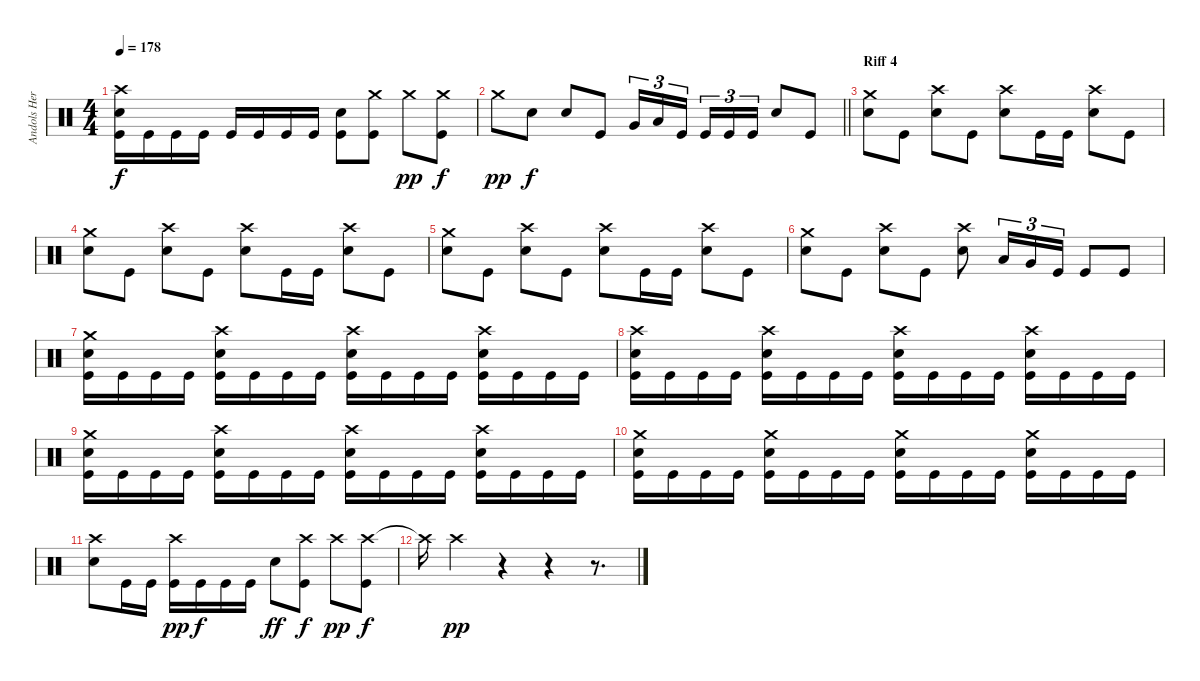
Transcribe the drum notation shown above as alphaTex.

\track ("Andols Herrick" "Andols Her") {instrument percussion}
\staff {score}
\articulation defaults
\ts (4 4)
\tempo 178
\clef neutral
\ks c
("Crash high (hit)" "Electric Snare (hit)" "Kick (hit)").16{dy f} "Kick (hit)".16 "Kick (hit)".16 "Kick (hit)".16 "Kick (hit)".16 "Kick (hit)".16 "Kick (hit)".16 "Kick (hit)".16 ("Electric Snare (hit)" "Kick (hit)").8 ("Crash medium (hit)" "Kick (hit)").8 "Crash medium (hit)".8{dy pp} ("Crash medium (hit)" "Kick (hit)").8{dy f} |
\barLineRight lightlight "Crash medium (hit)".8{dy pp} "Electric Snare (hit)".8{dy f} "Electric Snare (hit)".8 "Kick (hit)".8 "Very Low Tom (hit)".16{tu (3 2)} "Low Floor Tom (hit)".16{tu (3 2)} "Kick (hit)".16{tu (3 2) beam splitsecondary} "Kick (hit)".16{tu (3 2)} "Kick (hit)".16{tu (3 2)} "Kick (hit)".16{tu (3 2)} "Electric Snare (hit)".8 "Kick (hit)".8
|
\section ("" "Riff 4")
("Crash medium (hit)" "Electric Snare (hit)").8 "Kick (hit)".8 ("Crash high (hit)" "Electric Snare (hit)").8 "Kick (hit)".8 ("Crash high (hit)" "Electric Snare (hit)").8 "Kick (hit)".16 "Kick (hit)".16 ("Crash high (hit)" "Electric Snare (hit)").8 "Kick (hit)".8 |
("Crash medium (hit)" "Electric Snare (hit)").8 "Kick (hit)".8 ("Crash high (hit)" "Electric Snare (hit)").8 "Kick (hit)".8 ("Crash high (hit)" "Electric Snare (hit)").8 "Kick (hit)".16 "Kick (hit)".16 ("Crash high (hit)" "Electric Snare (hit)").8 "Kick (hit)".8 |
("Crash medium (hit)" "Electric Snare (hit)").8 "Kick (hit)".8 ("Crash high (hit)" "Electric Snare (hit)").8 "Kick (hit)".8 ("Crash high (hit)" "Electric Snare (hit)").8 "Kick (hit)".16 "Kick (hit)".16 ("Crash high (hit)" "Electric Snare (hit)").8 "Kick (hit)".8 |
("Crash medium (hit)" "Electric Snare (hit)").8 "Kick (hit)".8 ("Crash high (hit)" "Electric Snare (hit)").8 "Kick (hit)".8 ("Crash high (hit)" "Electric Snare (hit)").8 "Low Tom (hit)".16{tu (3 2)} "Very Low Tom (hit)".16{tu (3 2)} "Kick (hit)".16{tu (3 2)} "Kick (hit)".8 "Kick (hit)".8 |
("Crash medium (hit)" "Electric Snare (hit)" "Kick (hit)").16 "Kick (hit)".16 "Kick (hit)".16 "Kick (hit)".16 ("Crash high (hit)" "Electric Snare (hit)" "Kick (hit)").16 "Kick (hit)".16 "Kick (hit)".16 "Kick (hit)".16 ("Crash high (hit)" "Electric Snare (hit)" "Kick (hit)").16 "Kick (hit)".16 "Kick (hit)".16 "Kick (hit)".16 ("Crash high (hit)" "Electric Snare (hit)" "Kick (hit)").16 "Kick (hit)".16 "Kick (hit)".16 "Kick (hit)".16 |
("Crash high (hit)" "Electric Snare (hit)" "Kick (hit)").16 "Kick (hit)".16 "Kick (hit)".16 "Kick (hit)".16 ("Crash high (hit)" "Electric Snare (hit)" "Kick (hit)").16 "Kick (hit)".16 "Kick (hit)".16 "Kick (hit)".16 ("Crash high (hit)" "Electric Snare (hit)" "Kick (hit)").16 "Kick (hit)".16 "Kick (hit)".16 "Kick (hit)".16 ("Crash high (hit)" "Electric Snare (hit)" "Kick (hit)").16 "Kick (hit)".16 "Kick (hit)".16 "Kick (hit)".16 |
("Crash medium (hit)" "Electric Snare (hit)" "Kick (hit)").16 "Kick (hit)".16 "Kick (hit)".16 "Kick (hit)".16 ("Crash high (hit)" "Electric Snare (hit)" "Kick (hit)").16 "Kick (hit)".16 "Kick (hit)".16 "Kick (hit)".16 ("Crash high (hit)" "Electric Snare (hit)" "Kick (hit)").16 "Kick (hit)".16 "Kick (hit)".16 "Kick (hit)".16 ("Crash high (hit)" "Electric Snare (hit)" "Kick (hit)").16 "Kick (hit)".16 "Kick (hit)".16 "Kick (hit)".16 |
("Crash medium (hit)" "Electric Snare (hit)" "Kick (hit)").16 "Kick (hit)".16 "Kick (hit)".16 "Kick (hit)".16 ("Crash medium (hit)" "Electric Snare (hit)" "Kick (hit)").16 "Kick (hit)".16 "Kick (hit)".16 "Kick (hit)".16 ("Crash medium (hit)" "Electric Snare (hit)" "Kick (hit)").16 "Kick (hit)".16 "Kick (hit)".16 "Kick (hit)".16 ("Crash medium (hit)" "Electric Snare (hit)" "Kick (hit)").16 "Kick (hit)".16 "Kick (hit)".16 "Kick (hit)".16 |
("Crash high (hit)" "Electric Snare (hit)").8 "Kick (hit)".16 "Kick (hit)".16 ("Crash high (hit)" "Kick (hit)").16{dy pp} "Kick (hit)".16{dy f} "Kick (hit)".16 "Kick (hit)".16 "Electric Snare (hit)".8{dy ff} ("Crash high (hit)" "Kick (hit)").8{dy f} "Crash high (hit)".8{dy pp} ("Crash high (hit)" "Kick (hit)").8{dy f} |
"Crash high (hit)"{t}.16 "Crash high (hit)".4{dy pp} r.4 r.4 r.8{d}
